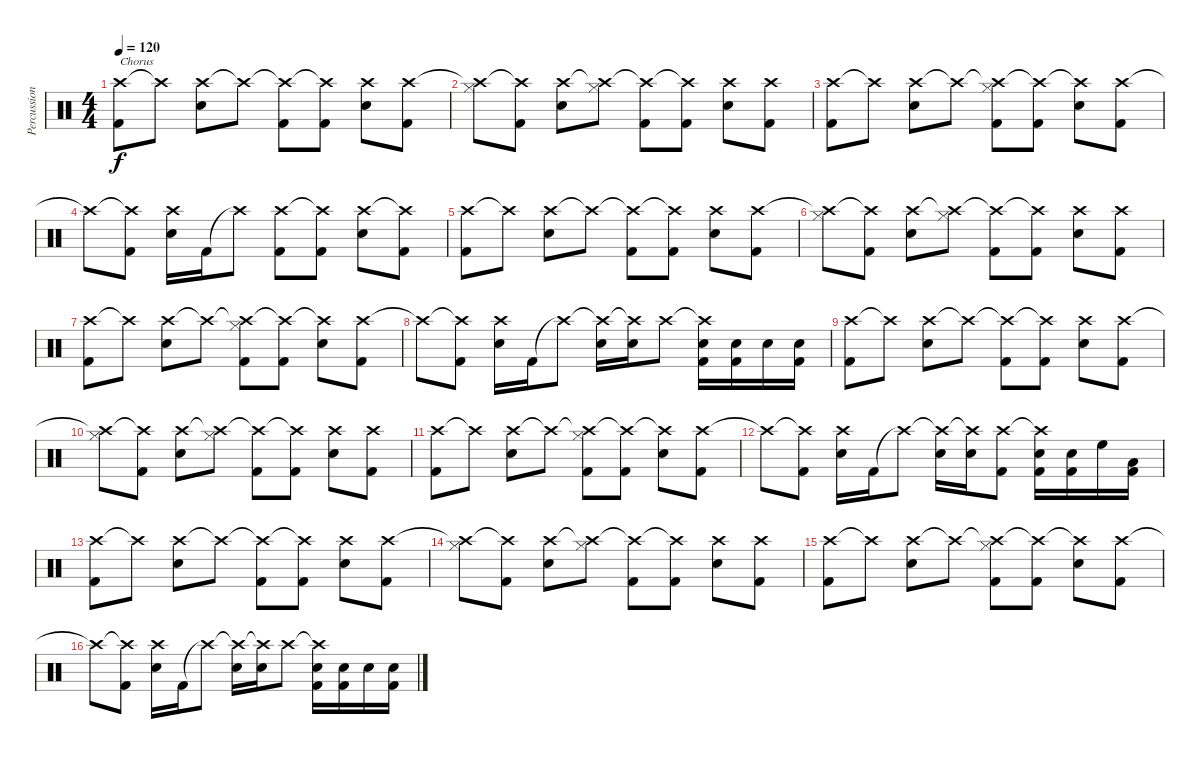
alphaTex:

\track ("Percussion" "Percussion") {instrument percussion}
\staff {score}
\articulation defaults
\ts (4 4)
\tempo 120
\clef neutral
\ks c
("Crash high (hit)" "Kick (hit) 2").8{txt "Chorus" dy f} "Crash high (hit)"{t}.8 ("Crash high (hit)" "Electric Snare (hit)").8 "Crash high (hit)"{t}.8 ("Crash high (hit)"{t} "Kick (hit) 2").8 ("Crash high (hit)"{t} "Kick (hit) 2").8 ("Crash high (hit)" "Electric Snare (hit)").8 ("Crash high (hit)" "Kick (hit) 2").8 |
("Crash high (hit)"{t} "Hi-Hat (closed)").8 ("Crash high (hit)"{t} "Kick (hit) 2").8 ("Crash high (hit)" "Electric Snare (hit)").8 ("Crash high (hit)"{t} "Hi-Hat (closed)").8 ("Crash high (hit)"{t} "Kick (hit) 2").8 ("Crash high (hit)"{t} "Kick (hit) 2").8 ("Crash high (hit)" "Electric Snare (hit)").8 ("Crash high (hit)" "Kick (hit) 2").8 |
("Crash high (hit)" "Kick (hit) 2").8 "Crash high (hit)"{t}.8 ("Crash high (hit)" "Electric Snare (hit)").8 "Crash high (hit)"{t}.8 ("Crash high (hit)"{t} "Hi-Hat (closed)" "Kick (hit) 2").8 ("Crash high (hit)"{t} "Kick (hit) 2").8 ("Crash high (hit)"{t} "Electric Snare (hit)").8 ("Crash high (hit)" "Kick (hit) 2").8 |
"Crash high (hit)"{t}.8 ("Crash high (hit)"{t} "Kick (hit) 2").8 ("Crash high (hit)" "Electric Snare (hit)").16 "Kick (hit) 2".16 "Crash high (hit)"{t}.8 ("Crash high (hit)" "Kick (hit) 2").8 ("Crash high (hit)"{t} "Kick (hit) 2").8 ("Crash high (hit)" "Electric Snare (hit)").8 ("Crash high (hit)"{t} "Kick (hit) 2").8 |
("Crash high (hit)" "Kick (hit) 2").8 "Crash high (hit)"{t}.8 ("Crash high (hit)" "Electric Snare (hit)").8 "Crash high (hit)"{t}.8 ("Crash high (hit)"{t} "Kick (hit) 2").8 ("Crash high (hit)"{t} "Kick (hit) 2").8 ("Crash high (hit)" "Electric Snare (hit)").8 ("Crash high (hit)" "Kick (hit) 2").8 |
("Crash high (hit)"{t} "Hi-Hat (closed)").8 ("Crash high (hit)"{t} "Kick (hit) 2").8 ("Crash high (hit)" "Electric Snare (hit)").8 ("Crash high (hit)"{t} "Hi-Hat (closed)").8 ("Crash high (hit)"{t} "Kick (hit) 2").8 ("Crash high (hit)"{t} "Kick (hit) 2").8 ("Crash high (hit)" "Electric Snare (hit)").8 ("Crash high (hit)" "Kick (hit) 2").8 |
("Crash high (hit)" "Kick (hit) 2").8 "Crash high (hit)"{t}.8 ("Crash high (hit)" "Electric Snare (hit)").8 "Crash high (hit)"{t}.8 ("Crash high (hit)"{t} "Hi-Hat (closed)" "Kick (hit) 2").8 ("Crash high (hit)"{t} "Kick (hit) 2").8 ("Crash high (hit)"{t} "Electric Snare (hit)").8 ("Crash high (hit)" "Kick (hit) 2").8 |
"Crash high (hit)"{t}.8 ("Crash high (hit)"{t} "Kick (hit) 2").8 ("Crash high (hit)" "Electric Snare (hit)").16 "Kick (hit) 2".16 "Crash high (hit)"{t}.8 ("Crash high (hit)"{t} "Electric Snare (hit)").16 ("Crash high (hit)"{t} "Electric Snare (hit)").16 "Crash high (hit)".8 ("Crash high (hit)"{t} "Electric Snare (hit)" "Kick (hit) 2").16 ("Electric Snare (hit)" "Kick (hit) 2").16 "Electric Snare (hit)".16 ("Electric Snare (hit)" "Kick (hit) 2").16 |
("Crash high (hit)" "Kick (hit) 2").8 "Crash high (hit)"{t}.8 ("Crash high (hit)" "Electric Snare (hit)").8 "Crash high (hit)"{t}.8 ("Crash high (hit)"{t} "Kick (hit) 2").8 ("Crash high (hit)"{t} "Kick (hit) 2").8 ("Crash high (hit)" "Electric Snare (hit)").8 ("Crash high (hit)" "Kick (hit) 2").8 |
("Crash high (hit)"{t} "Hi-Hat (closed)").8 ("Crash high (hit)"{t} "Kick (hit) 2").8 ("Crash high (hit)" "Electric Snare (hit)").8 ("Crash high (hit)"{t} "Hi-Hat (closed)").8 ("Crash high (hit)"{t} "Kick (hit) 2").8 ("Crash high (hit)"{t} "Kick (hit) 2").8 ("Crash high (hit)" "Electric Snare (hit)").8 ("Crash high (hit)" "Kick (hit) 2").8 |
("Crash high (hit)" "Kick (hit) 2").8 "Crash high (hit)"{t}.8 ("Crash high (hit)" "Electric Snare (hit)").8 "Crash high (hit)"{t}.8 ("Crash high (hit)"{t} "Hi-Hat (closed)" "Kick (hit) 2").8 ("Crash high (hit)"{t} "Kick (hit) 2").8 ("Crash high (hit)"{t} "Electric Snare (hit)").8 ("Crash high (hit)" "Kick (hit) 2").8 |
"Crash high (hit)"{t}.8 ("Crash high (hit)"{t} "Kick (hit) 2").8 ("Crash high (hit)" "Electric Snare (hit)").16 "Kick (hit) 2".16 "Crash high (hit)"{t}.8 ("Crash high (hit)"{t} "Electric Snare (hit)").16 ("Crash high (hit)"{t} "Electric Snare (hit)").16 ("Crash high (hit)" "Kick (hit) 2").8 ("Crash high (hit)"{t} "Electric Snare (hit)" "Kick (hit) 2").16 ("Electric Snare (hit)" "Kick (hit) 2").16 "High Floor Tom (hit)".16 ("Low Floor Tom (hit)" "Kick (hit) 2").16 |
("Crash high (hit)" "Kick (hit) 2").8 "Crash high (hit)"{t}.8 ("Crash high (hit)" "Electric Snare (hit)").8 "Crash high (hit)"{t}.8 ("Crash high (hit)"{t} "Kick (hit) 2").8 ("Crash high (hit)"{t} "Kick (hit) 2").8 ("Crash high (hit)" "Electric Snare (hit)").8 ("Crash high (hit)" "Kick (hit) 2").8 |
("Crash high (hit)"{t} "Hi-Hat (closed)").8 ("Crash high (hit)"{t} "Kick (hit) 2").8 ("Crash high (hit)" "Electric Snare (hit)").8 ("Crash high (hit)"{t} "Hi-Hat (closed)").8 ("Crash high (hit)"{t} "Kick (hit) 2").8 ("Crash high (hit)"{t} "Kick (hit) 2").8 ("Crash high (hit)" "Electric Snare (hit)").8 ("Crash high (hit)" "Kick (hit) 2").8 |
("Crash high (hit)" "Kick (hit) 2").8 "Crash high (hit)"{t}.8 ("Crash high (hit)" "Electric Snare (hit)").8 "Crash high (hit)"{t}.8 ("Crash high (hit)"{t} "Hi-Hat (closed)" "Kick (hit) 2").8 ("Crash high (hit)"{t} "Kick (hit) 2").8 ("Crash high (hit)"{t} "Electric Snare (hit)").8 ("Crash high (hit)" "Kick (hit) 2").8 |
"Crash high (hit)"{t}.8 ("Crash high (hit)"{t} "Kick (hit) 2").8 ("Crash high (hit)" "Electric Snare (hit)").16 "Kick (hit) 2".16 "Crash high (hit)"{t}.8 ("Crash high (hit)"{t} "Electric Snare (hit)").16 ("Crash high (hit)"{t} "Electric Snare (hit)").16 "Crash high (hit)".8 ("Crash high (hit)"{t} "Electric Snare (hit)" "Kick (hit) 2").16 ("Electric Snare (hit)" "Kick (hit) 2").16 "Electric Snare (hit)".16 ("Electric Snare (hit)" "Kick (hit) 2").16
